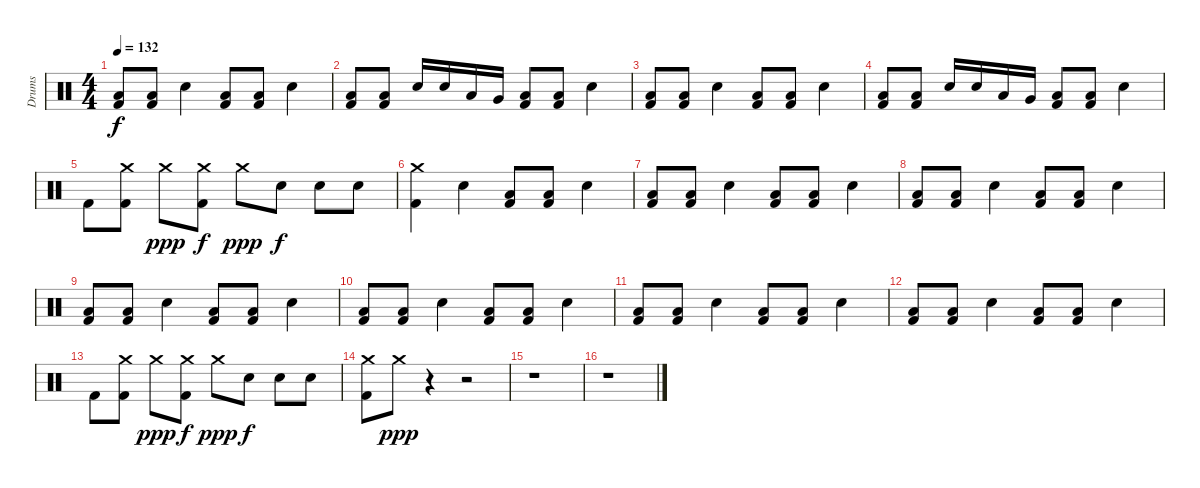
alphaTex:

\track ("Drums" "Drums") {instrument percussion}
\staff
\articulation defaults
\ts (4 4)
\tempo 132
\clef neutral
\ks c
("Low Floor Tom (hit)" "Kick (hit) 2").8{dy f} ("Low Floor Tom (hit)" "Kick (hit) 2").8 "Snare (hit) 2".4 ("Low Floor Tom (hit)" "Kick (hit) 2").8 ("Low Floor Tom (hit)" "Kick (hit) 2").8 "Snare (hit) 2".4 |
("Low Floor Tom (hit)" "Kick (hit) 2").8 ("Low Floor Tom (hit)" "Kick (hit) 2").8 "Snare (hit) 2".16 "Snare (hit) 2".16 "Low Floor Tom (hit)".16 "Very Low Tom (hit)".16 ("Low Floor Tom (hit)" "Kick (hit) 2").8 ("Low Floor Tom (hit)" "Kick (hit) 2").8 "Snare (hit) 2".4 |
("Low Floor Tom (hit)" "Kick (hit) 2").8 ("Low Floor Tom (hit)" "Kick (hit) 2").8 "Snare (hit) 2".4 ("Low Floor Tom (hit)" "Kick (hit) 2").8 ("Low Floor Tom (hit)" "Kick (hit) 2").8 "Snare (hit) 2".4 |
("Low Floor Tom (hit)" "Kick (hit) 2").8 ("Low Floor Tom (hit)" "Kick (hit) 2").8 "Snare (hit) 2".16 "Snare (hit) 2".16 "Low Floor Tom (hit)".16 "Very Low Tom (hit)".16 ("Low Floor Tom (hit)" "Kick (hit) 2").8 ("Low Floor Tom (hit)" "Kick (hit) 2").8 "Snare (hit) 2".4 |
"Kick (hit) 2".8 ("Crash medium (hit)" "Kick (hit) 2").8 "Crash medium (hit)".8{dy ppp} ("Crash medium (hit)" "Kick (hit) 2").8{dy f} "Crash medium (hit)".8{dy ppp} "Snare (hit) 2".8{dy f} "Snare (hit) 2".8 "Snare (hit) 2".8 |
("Crash medium (hit)" "Kick (hit) 2").4 "Snare (hit) 2".4 ("Low Floor Tom (hit)" "Kick (hit) 2").8 ("Low Floor Tom (hit)" "Kick (hit) 2").8 "Snare (hit) 2".4 |
("Low Floor Tom (hit)" "Kick (hit) 2").8 ("Low Floor Tom (hit)" "Kick (hit) 2").8 "Snare (hit) 2".4 ("Low Floor Tom (hit)" "Kick (hit) 2").8 ("Low Floor Tom (hit)" "Kick (hit) 2").8 "Snare (hit) 2".4 |
("Low Floor Tom (hit)" "Kick (hit) 2").8 ("Low Floor Tom (hit)" "Kick (hit) 2").8 "Snare (hit) 2".4 ("Low Floor Tom (hit)" "Kick (hit) 2").8 ("Low Floor Tom (hit)" "Kick (hit) 2").8 "Snare (hit) 2".4 |
("Low Floor Tom (hit)" "Kick (hit) 2").8 ("Low Floor Tom (hit)" "Kick (hit) 2").8 "Snare (hit) 2".4 ("Low Floor Tom (hit)" "Kick (hit) 2").8 ("Low Floor Tom (hit)" "Kick (hit) 2").8 "Snare (hit) 2".4 |
("Low Floor Tom (hit)" "Kick (hit) 2").8 ("Low Floor Tom (hit)" "Kick (hit) 2").8 "Snare (hit) 2".4 ("Low Floor Tom (hit)" "Kick (hit) 2").8 ("Low Floor Tom (hit)" "Kick (hit) 2").8 "Snare (hit) 2".4 |
("Low Floor Tom (hit)" "Kick (hit) 2").8 ("Low Floor Tom (hit)" "Kick (hit) 2").8 "Snare (hit) 2".4 ("Low Floor Tom (hit)" "Kick (hit) 2").8 ("Low Floor Tom (hit)" "Kick (hit) 2").8 "Snare (hit) 2".4 |
("Low Floor Tom (hit)" "Kick (hit) 2").8 ("Low Floor Tom (hit)" "Kick (hit) 2").8 "Snare (hit) 2".4 ("Low Floor Tom (hit)" "Kick (hit) 2").8 ("Low Floor Tom (hit)" "Kick (hit) 2").8 "Snare (hit) 2".4 |
"Kick (hit) 2".8 ("Crash medium (hit)" "Kick (hit) 2").8 "Crash medium (hit)".8{dy ppp} ("Crash medium (hit)" "Kick (hit) 2").8{dy f} "Crash medium (hit)".8{dy ppp} "Snare (hit) 2".8{dy f} "Snare (hit) 2".8 "Snare (hit) 2".8 |
("Crash medium (hit)" "Kick (hit) 2").8 "Crash medium (hit)".8{dy ppp} r.4 r.2 |
r.1 |
r.1
